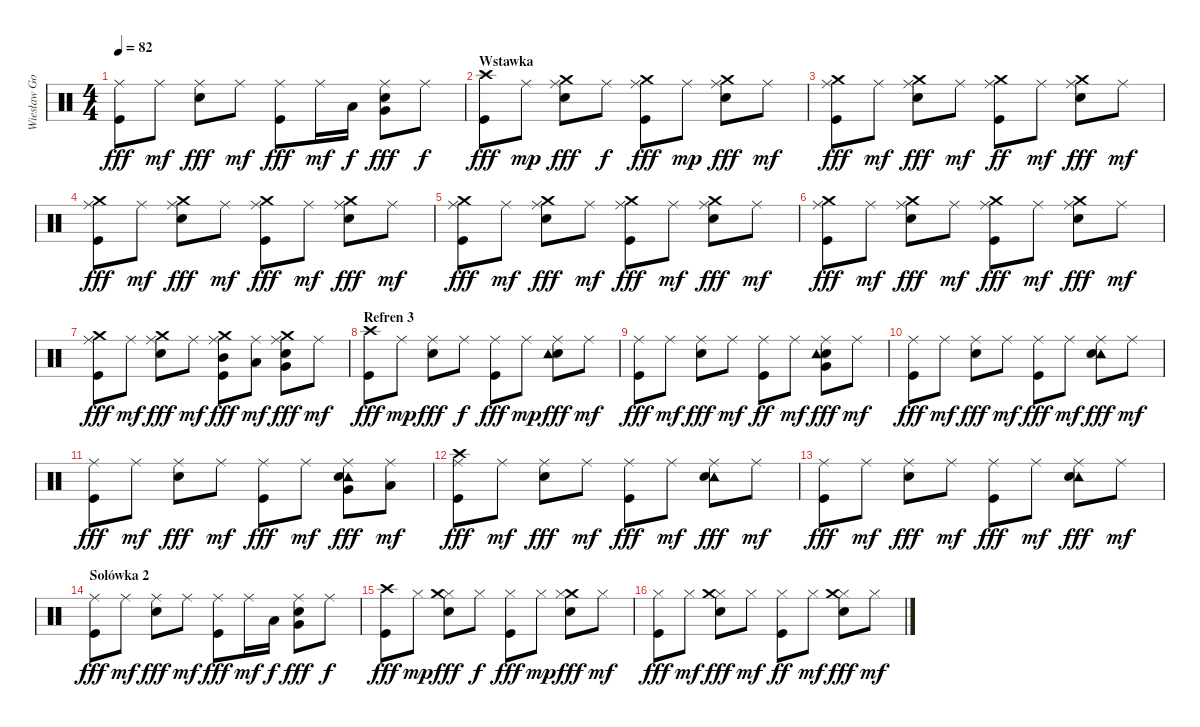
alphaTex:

\track ("Wiesław Gola" "Wiesław Go") {instrument percussion}
\staff {score}
\articulation defaults
\ts (4 4)
\tempo 82
\clef neutral
\ks c
("Kick (hit)" "Ride (middle)").8{dy fff} "Ride (middle)".8{dy mf} ("Snare (hit) 2" "Ride (middle)").8{dy fff} "Ride (middle)".8{dy mf} ("Ride (middle)" "Kick (hit)").8{dy fff} "Ride (middle)".16{dy mf} "Low Tom (hit)".16{dy f} ("Ride (middle)" "Very Low Tom (hit)" "Snare (hit) 2").8{dy fff} "Ride (middle)".8{dy f} |
\section ("" "Wstawka")
("Crash high (hit)" "Kick (hit)").8{dy fff} "Ride (middle)".8{dy mp} ("Snare (hit) 2" "Ride (middle)" "Crash medium (hit)").8{dy fff} "Ride (middle)".8{dy f} ("Kick (hit)" "Ride (middle)" "Crash medium (hit)").8{dy fff} "Ride (middle)".8{dy mp} ("Snare (hit) 2" "Crash medium (hit)" "Ride (middle)").8{dy fff} "Ride (middle)".8{dy mf} |
("Kick (hit)" "Ride (middle)" "Crash medium (hit)").8{dy fff} "Ride (middle)".8{dy mf} ("Snare (hit) 2" "Ride (middle)" "Crash medium (hit)").8{dy fff} "Ride (middle)".8{dy mf} ("Kick (hit)" "Ride (middle)" "Crash medium (hit)").8{dy ff} "Ride (middle)".8{dy mf} ("Snare (hit) 2" "Ride (middle)" "Crash medium (hit)").8{dy fff} "Ride (middle)".8{dy mf} |
("Ride (middle)" "Crash medium (hit)" "Kick (hit)").8{dy fff} "Ride (middle)".8{dy mf} ("Ride (middle)" "Crash medium (hit)" "Snare (hit) 2").8{dy fff} "Ride (middle)".8{dy mf} ("Crash medium (hit)" "Kick (hit)" "Ride (middle)").8{dy fff} "Ride (middle)".8{dy mf} ("Crash medium (hit)" "Snare (hit) 2" "Ride (middle)").8{dy fff} "Ride (middle)".8{dy mf} |
("Ride (middle)" "Crash medium (hit)" "Kick (hit)").8{dy fff} "Ride (middle)".8{dy mf} ("Ride (middle)" "Crash medium (hit)" "Snare (hit) 2").8{dy fff} "Ride (middle)".8{dy mf} ("Ride (middle)" "Crash medium (hit)" "Kick (hit)").8{dy fff} "Ride (middle)".8{dy mf} ("Ride (middle)" "Crash medium (hit)" "Snare (hit) 2").8{dy fff} "Ride (middle)".8{dy mf} |
("Crash medium (hit)" "Kick (hit)" "Ride (middle)").8{dy fff} "Ride (middle)".8{dy mf} ("Ride (middle)" "Crash medium (hit)" "Snare (hit) 2").8{dy fff} "Ride (middle)".8{dy mf} ("Ride (middle)" "Crash medium (hit)" "Kick (hit)").8{dy fff} "Ride (middle)".8{dy mf} ("Crash medium (hit)" "Snare (hit) 2" "Ride (middle)").8{dy fff} "Ride (middle)".8{dy mf} |
("Ride (middle)" "Crash medium (hit)" "Kick (hit)").8{dy fff} "Ride (middle)".8{dy mf} ("Ride (middle)" "Crash medium (hit)" "Snare (hit) 2").8{dy fff} "Ride (middle)".8{dy mf} ("Mid Tom (hit)" "Crash medium (hit)" "Kick (hit)" "Ride (middle)").8{dy fff} ("Low Tom (hit)" "Ride (middle)").8{dy mf} ("Very Low Tom (hit)" "Crash medium (hit)" "Snare (hit) 2" "Ride (middle)").8{dy fff} "Ride (middle)".8{dy mf} |
\section ("" "Refren 3")
("Crash high (hit)" "Kick (hit)").8{dy fff} "Ride (middle)".8{dy mp} ("Snare (hit) 2" "Ride (middle)").8{dy fff} "Ride (middle)".8{dy f} ("Kick (hit)" "Ride (middle)").8{dy fff} "Ride (middle)".8{dy mp} ("Snare (hit) 2" "Tambourine (hit)" "Ride (middle)").8{dy fff} "Ride (middle)".8{dy mf} |
("Kick (hit)" "Ride (middle)").8{dy fff} "Ride (middle)".8{dy mf} ("Snare (hit) 2" "Ride (middle)").8{dy fff} "Ride (middle)".8{dy mf} ("Kick (hit)" "Ride (middle)").8{dy ff} "Ride (middle)".8{dy mf} ("Snare (hit) 2" "Ride (middle)" "Very Low Tom (hit)" "Tambourine (hit)").8{dy fff} "Ride (middle)".8{dy mf} |
("Ride (middle)" "Kick (hit)").8{dy fff} "Ride (middle)".8{dy mf} ("Ride (middle)" "Snare (hit) 2").8{dy fff} "Ride (middle)".8{dy mf} ("Kick (hit)" "Ride (middle)").8{dy fff} "Ride (middle)".8{dy mf} ("Tambourine (hit)" "Snare (hit) 2" "Ride (middle)").8{dy fff} "Ride (middle)".8{dy mf} |
("Ride (middle)" "Kick (hit)").8{dy fff} "Ride (middle)".8{dy mf} ("Ride (middle)" "Snare (hit) 2").8{dy fff} "Ride (middle)".8{dy mf} ("Ride (middle)" "Kick (hit)").8{dy fff} "Ride (middle)".8{dy mf} ("Ride (middle)" "Very Low Tom (hit)" "Tambourine (hit)" "Snare (hit) 2").8{dy fff} ("Ride (middle)" "Low Floor Tom (hit)").8{dy mf} |
("Crash high (hit)" "Kick (hit)" "Ride (middle)").8{dy fff} "Ride (middle)".8{dy mf} ("Ride (middle)" "Snare (hit) 2").8{dy fff} "Ride (middle)".8{dy mf} ("Ride (middle)" "Kick (hit)").8{dy fff} "Ride (middle)".8{dy mf} ("Tambourine (hit)" "Snare (hit) 2" "Ride (middle)").8{dy fff} "Ride (middle)".8{dy mf} |
("Ride (middle)" "Kick (hit)").8{dy fff} "Ride (middle)".8{dy mf} ("Ride (middle)" "Snare (hit) 2").8{dy fff} "Ride (middle)".8{dy mf} ("Kick (hit)" "Ride (middle)").8{dy fff} "Ride (middle)".8{dy mf} ("Tambourine (hit)" "Snare (hit) 2" "Ride (middle)").8{dy fff} "Ride (middle)".8{dy mf} |
\section ("" "Solówka 2")
("Kick (hit)" "Ride (middle)").8{dy fff} "Ride (middle)".8{dy mf} ("Snare (hit) 2" "Ride (middle)").8{dy fff} "Ride (middle)".8{dy mf} ("Ride (middle)" "Kick (hit)").8{dy fff} "Ride (middle)".16{dy mf} "Low Tom (hit)".16{dy f} ("Ride (middle)" "Very Low Tom (hit)" "Snare (hit) 2").8{dy fff} "Ride (middle)".8{dy f} |
("Crash high (hit)" "Kick (hit)").8{dy fff} "Hi-Hat (closed)".8{dy mp} ("Snare (hit) 2" "Hi-Hat (closed)" "Crash medium (hit)").8{dy fff} "Hi-Hat (closed)".8{dy f} ("Kick (hit)" "Hi-Hat (closed)").8{dy fff} "Hi-Hat (closed)".8{dy mp} ("Snare (hit) 2" "Crash medium (hit)" "Hi-Hat (closed)").8{dy fff} "Hi-Hat (closed)".8{dy mf} |
("Kick (hit)" "Hi-Hat (closed)").8{dy fff} "Hi-Hat (closed)".8{dy mf} ("Snare (hit) 2" "Hi-Hat (closed)" "Crash medium (hit)").8{dy fff} "Hi-Hat (closed)".8{dy mf} ("Kick (hit)" "Hi-Hat (closed)").8{dy ff} "Hi-Hat (closed)".8{dy mf} ("Snare (hit) 2" "Hi-Hat (closed)" "Crash medium (hit)").8{dy fff} "Hi-Hat (closed)".8{dy mf}
